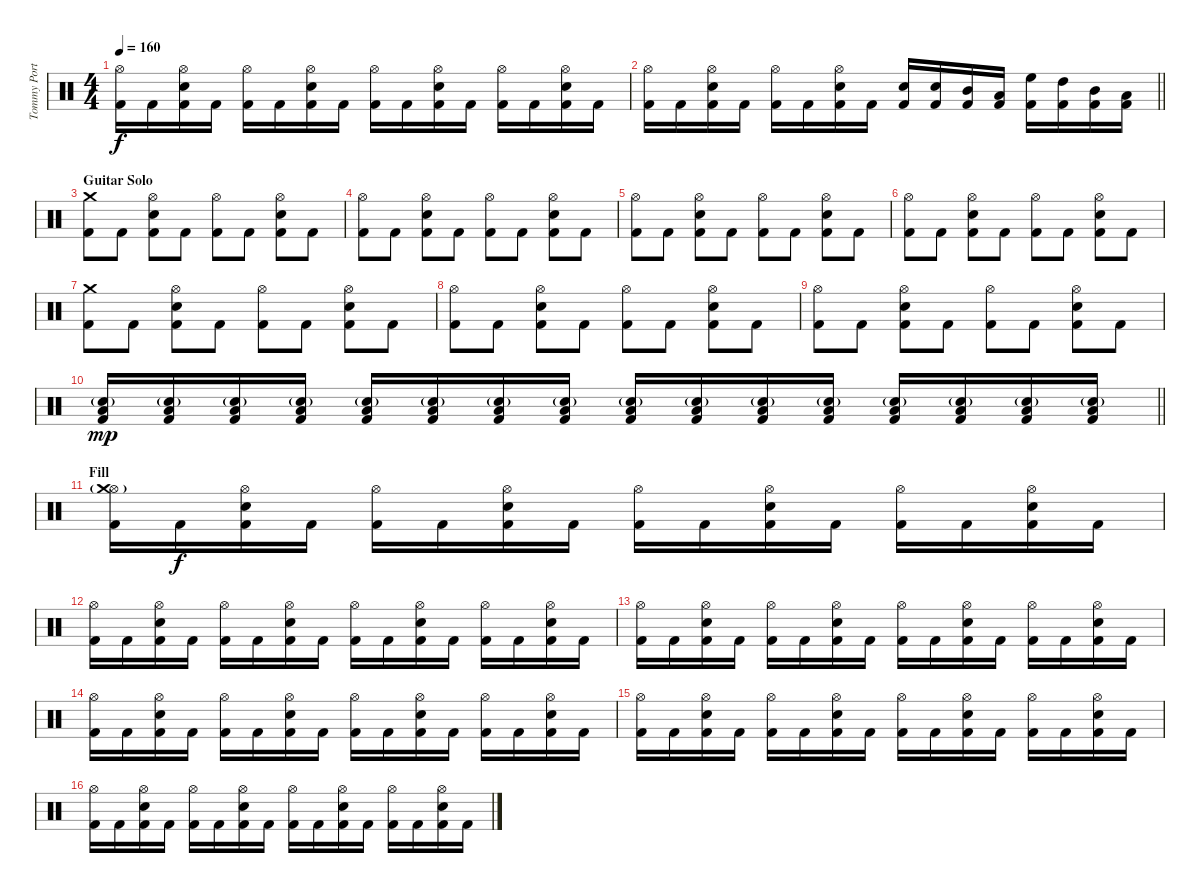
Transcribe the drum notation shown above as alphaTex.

\track ("Tommy Portino" "Tommy Port") {instrument percussion}
\staff {score}
\articulation defaults
\ts (4 4)
\tempo 160
\clef neutral
\ks c
("Hi-Hat (open)" "Kick (hit) 2").16{dy f} "Kick (hit) 2".16 ("Hi-Hat (open)" "Snare (hit) 2" "Kick (hit) 2").16 "Kick (hit) 2".16 ("Hi-Hat (open)" "Kick (hit) 2").16 "Kick (hit) 2".16 ("Hi-Hat (open)" "Snare (hit) 2" "Kick (hit) 2").16 "Kick (hit) 2".16 ("Hi-Hat (open)" "Kick (hit) 2").16 "Kick (hit) 2".16 ("Hi-Hat (open)" "Snare (hit) 2" "Kick (hit) 2").16 "Kick (hit) 2".16 ("Hi-Hat (open)" "Kick (hit) 2").16 "Kick (hit) 2".16 ("Hi-Hat (open)" "Snare (hit) 2" "Kick (hit) 2").16 "Kick (hit) 2".16 |
\barLineRight lightlight
("Hi-Hat (open)" "Kick (hit) 2").16 "Kick (hit) 2".16 ("Hi-Hat (open)" "Snare (hit) 2" "Kick (hit) 2").16 "Kick (hit) 2".16 ("Hi-Hat (open)" "Kick (hit) 2").16 "Kick (hit) 2".16 ("Hi-Hat (open)" "Snare (hit) 2" "Kick (hit) 2").16 "Kick (hit) 2".16 ("Snare (hit) 2" "Kick (hit) 2").16 ("Snare (hit) 2" "Kick (hit) 2").16 ("Mid Tom (hit)" "Kick (hit) 2").16 ("Low Tom (hit)" "Kick (hit) 2").16 ("High Floor Tom (hit)" "Kick (hit) 2").16 ("High Tom (hit)" "Kick (hit) 2").16 ("Mid Tom (hit)" "Kick (hit) 2").16 ("Low Tom (hit)" "Kick (hit) 2").16 |
\section ("" "Guitar Solo")
("Crash medium (hit)" "Kick (hit) 2").8 "Kick (hit) 2".8 ("Hi-Hat (open)" "Snare (hit) 2" "Kick (hit) 2").8 "Kick (hit) 2".8 ("Hi-Hat (open)" "Kick (hit) 2").8 "Kick (hit) 2".8 ("Hi-Hat (open)" "Snare (hit) 2" "Kick (hit) 2").8 "Kick (hit) 2".8 |
("Hi-Hat (open)" "Kick (hit) 2").8 "Kick (hit) 2".8 ("Hi-Hat (open)" "Snare (hit) 2" "Kick (hit) 2").8 "Kick (hit) 2".8 ("Hi-Hat (open)" "Kick (hit) 2").8 "Kick (hit) 2".8 ("Hi-Hat (open)" "Snare (hit) 2" "Kick (hit) 2").8 "Kick (hit) 2".8 |
("Hi-Hat (open)" "Kick (hit) 2").8 "Kick (hit) 2".8 ("Hi-Hat (open)" "Snare (hit) 2" "Kick (hit) 2").8 "Kick (hit) 2".8 ("Hi-Hat (open)" "Kick (hit) 2").8 "Kick (hit) 2".8 ("Hi-Hat (open)" "Snare (hit) 2" "Kick (hit) 2").8 "Kick (hit) 2".8 |
("Hi-Hat (open)" "Kick (hit) 2").8 "Kick (hit) 2".8 ("Hi-Hat (open)" "Snare (hit) 2" "Kick (hit) 2").8 "Kick (hit) 2".8 ("Hi-Hat (open)" "Kick (hit) 2").8 "Kick (hit) 2".8 ("Hi-Hat (open)" "Snare (hit) 2" "Kick (hit) 2").8 "Kick (hit) 2".8 |
("Crash medium (hit)" "Kick (hit) 2").8 "Kick (hit) 2".8 ("Hi-Hat (open)" "Snare (hit) 2" "Kick (hit) 2").8 "Kick (hit) 2".8 ("Hi-Hat (open)" "Kick (hit) 2").8 "Kick (hit) 2".8 ("Hi-Hat (open)" "Snare (hit) 2" "Kick (hit) 2").8 "Kick (hit) 2".8 |
("Hi-Hat (open)" "Kick (hit) 2").8 "Kick (hit) 2".8 ("Hi-Hat (open)" "Snare (hit) 2" "Kick (hit) 2").8 "Kick (hit) 2".8 ("Hi-Hat (open)" "Kick (hit) 2").8 "Kick (hit) 2".8 ("Hi-Hat (open)" "Snare (hit) 2" "Kick (hit) 2").8 "Kick (hit) 2".8 |
("Hi-Hat (open)" "Kick (hit) 2").8 "Kick (hit) 2".8 ("Hi-Hat (open)" "Snare (hit) 2" "Kick (hit) 2").8 "Kick (hit) 2".8 ("Hi-Hat (open)" "Kick (hit) 2").8 "Kick (hit) 2".8 ("Hi-Hat (open)" "Snare (hit) 2" "Kick (hit) 2").8 "Kick (hit) 2".8 |
\barLineRight lightlight
("Low Tom (hit)" "Snare (hit) 2"{g} "Kick (hit) 2").16{dy mp} ("Low Tom (hit)" "Snare (hit) 2"{g} "Kick (hit) 2").16 ("Low Tom (hit)" "Snare (hit) 2"{g} "Kick (hit) 2").16 ("Low Tom (hit)" "Snare (hit) 2"{g} "Kick (hit) 2").16 ("Low Tom (hit)" "Snare (hit) 2"{g} "Kick (hit) 2").16 ("Low Tom (hit)" "Snare (hit) 2"{g} "Kick (hit) 2").16 ("Low Tom (hit)" "Snare (hit) 2"{g} "Kick (hit) 2").16 ("Low Tom (hit)" "Snare (hit) 2"{g} "Kick (hit) 2").16 ("Low Tom (hit)" "Snare (hit) 2"{g} "Kick (hit) 2").16 ("Low Tom (hit)" "Snare (hit) 2"{g} "Kick (hit) 2").16 ("Low Tom (hit)" "Snare (hit) 2"{g} "Kick (hit) 2").16 ("Low Tom (hit)" "Snare (hit) 2"{g} "Kick (hit) 2").16 ("Low Tom (hit)" "Snare (hit) 2"{g} "Kick (hit) 2").16 ("Low Tom (hit)" "Snare (hit) 2"{g} "Kick (hit) 2").16 ("Low Tom (hit)" "Snare (hit) 2"{g} "Kick (hit) 2").16 ("Low Tom (hit)" "Snare (hit) 2"{g} "Kick (hit) 2").16 |
\section ("" "Fill")
("Hi-Hat (open)"{g} "Crash medium (hit)" "Kick (hit) 2").16 "Kick (hit) 2".16{dy f} ("Hi-Hat (open)" "Snare (hit) 2" "Kick (hit) 2").16 "Kick (hit) 2".16 ("Hi-Hat (open)" "Kick (hit) 2").16 "Kick (hit) 2".16 ("Hi-Hat (open)" "Snare (hit) 2" "Kick (hit) 2").16 "Kick (hit) 2".16 ("Hi-Hat (open)" "Kick (hit) 2").16 "Kick (hit) 2".16 ("Hi-Hat (open)" "Snare (hit) 2" "Kick (hit) 2").16 "Kick (hit) 2".16 ("Hi-Hat (open)" "Kick (hit) 2").16 "Kick (hit) 2".16 ("Hi-Hat (open)" "Snare (hit) 2" "Kick (hit) 2").16 "Kick (hit) 2".16 |
("Hi-Hat (open)" "Kick (hit) 2").16 "Kick (hit) 2".16 ("Hi-Hat (open)" "Snare (hit) 2" "Kick (hit) 2").16 "Kick (hit) 2".16 ("Hi-Hat (open)" "Kick (hit) 2").16 "Kick (hit) 2".16 ("Hi-Hat (open)" "Snare (hit) 2" "Kick (hit) 2").16 "Kick (hit) 2".16 ("Hi-Hat (open)" "Kick (hit) 2").16 "Kick (hit) 2".16 ("Hi-Hat (open)" "Snare (hit) 2" "Kick (hit) 2").16 "Kick (hit) 2".16 ("Hi-Hat (open)" "Kick (hit) 2").16 "Kick (hit) 2".16 ("Hi-Hat (open)" "Snare (hit) 2" "Kick (hit) 2").16 "Kick (hit) 2".16 |
("Hi-Hat (open)" "Kick (hit) 2").16 "Kick (hit) 2".16 ("Hi-Hat (open)" "Snare (hit) 2" "Kick (hit) 2").16 "Kick (hit) 2".16 ("Hi-Hat (open)" "Kick (hit) 2").16 "Kick (hit) 2".16 ("Hi-Hat (open)" "Snare (hit) 2" "Kick (hit) 2").16 "Kick (hit) 2".16 ("Hi-Hat (open)" "Kick (hit) 2").16 "Kick (hit) 2".16 ("Hi-Hat (open)" "Snare (hit) 2" "Kick (hit) 2").16 "Kick (hit) 2".16 ("Hi-Hat (open)" "Kick (hit) 2").16 "Kick (hit) 2".16 ("Hi-Hat (open)" "Snare (hit) 2" "Kick (hit) 2").16 "Kick (hit) 2".16 |
("Hi-Hat (open)" "Kick (hit) 2").16 "Kick (hit) 2".16 ("Hi-Hat (open)" "Snare (hit) 2" "Kick (hit) 2").16 "Kick (hit) 2".16 ("Hi-Hat (open)" "Kick (hit) 2").16 "Kick (hit) 2".16 ("Hi-Hat (open)" "Snare (hit) 2" "Kick (hit) 2").16 "Kick (hit) 2".16 ("Hi-Hat (open)" "Kick (hit) 2").16 "Kick (hit) 2".16 ("Hi-Hat (open)" "Snare (hit) 2" "Kick (hit) 2").16 "Kick (hit) 2".16 ("Hi-Hat (open)" "Kick (hit) 2").16 "Kick (hit) 2".16 ("Hi-Hat (open)" "Snare (hit) 2" "Kick (hit) 2").16 "Kick (hit) 2".16 |
("Hi-Hat (open)" "Kick (hit) 2").16 "Kick (hit) 2".16 ("Hi-Hat (open)" "Snare (hit) 2" "Kick (hit) 2").16 "Kick (hit) 2".16 ("Hi-Hat (open)" "Kick (hit) 2").16 "Kick (hit) 2".16 ("Hi-Hat (open)" "Snare (hit) 2" "Kick (hit) 2").16 "Kick (hit) 2".16 ("Hi-Hat (open)" "Kick (hit) 2").16 "Kick (hit) 2".16 ("Hi-Hat (open)" "Snare (hit) 2" "Kick (hit) 2").16 "Kick (hit) 2".16 ("Hi-Hat (open)" "Kick (hit) 2").16 "Kick (hit) 2".16 ("Hi-Hat (open)" "Snare (hit) 2" "Kick (hit) 2").16 "Kick (hit) 2".16 |
("Hi-Hat (open)" "Kick (hit) 2").16 "Kick (hit) 2".16 ("Hi-Hat (open)" "Snare (hit) 2" "Kick (hit) 2").16 "Kick (hit) 2".16 ("Hi-Hat (open)" "Kick (hit) 2").16 "Kick (hit) 2".16 ("Hi-Hat (open)" "Snare (hit) 2" "Kick (hit) 2").16 "Kick (hit) 2".16 ("Hi-Hat (open)" "Kick (hit) 2").16 "Kick (hit) 2".16 ("Hi-Hat (open)" "Snare (hit) 2" "Kick (hit) 2").16 "Kick (hit) 2".16 ("Hi-Hat (open)" "Kick (hit) 2").16 "Kick (hit) 2".16 ("Hi-Hat (open)" "Snare (hit) 2" "Kick (hit) 2").16 "Kick (hit) 2".16
